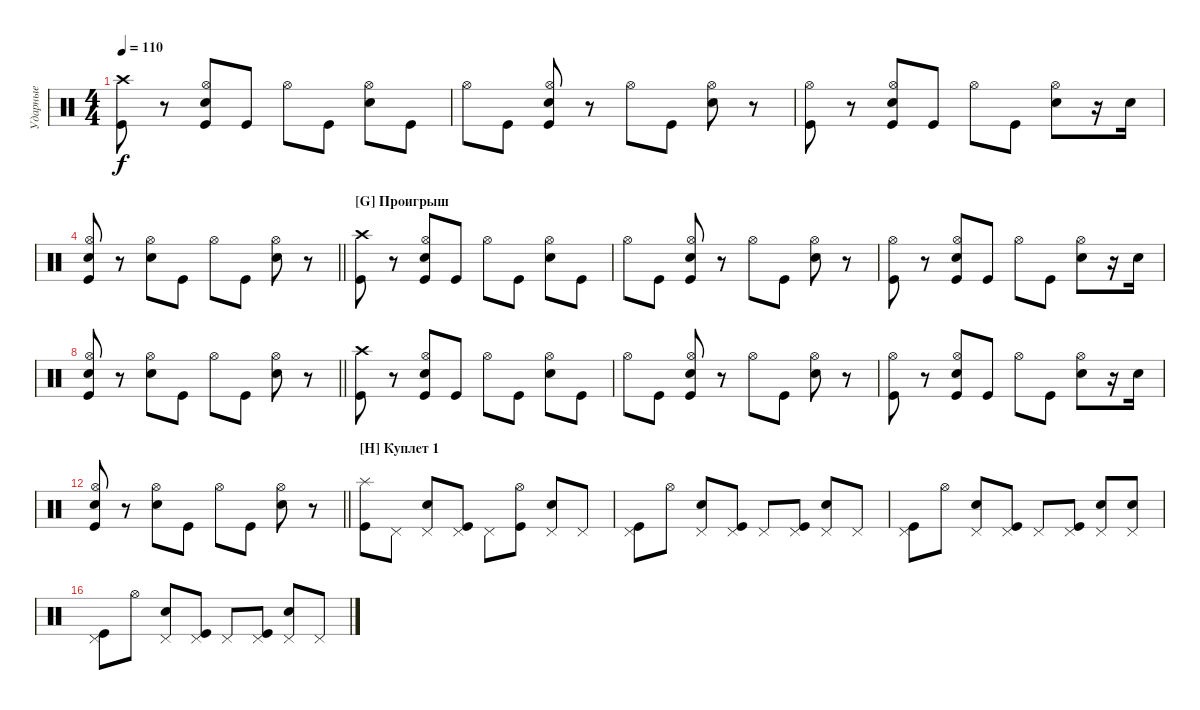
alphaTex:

\bracketExtendMode groupsimilarinstruments
\multiTrackTrackNamePolicy hidden
\firstSystemTrackNameMode fullname
\otherSystemsTrackNameMode fullname
\otherSystemsTrackNameOrientation horizontal
\defaultBarNumberDisplay FirstOfSystem
\track ("Ударные" "Drums") {multiBarRest instrument percussion}
\staff {score}
\articulation defaults
\ts (4 4)
\tempo 110
\clef neutral
\ks c
("Crash high (hit)" "Kick (hit)").8{dy f} r.8 ("Hi-Hat (open)" "Snare (hit) 2" "Kick (hit)").8 "Kick (hit)".8 "Hi-Hat (open)".8 "Kick (hit)".8 ("Hi-Hat (open)" "Snare (hit) 2").8 "Kick (hit)".8 |
"Hi-Hat (open)".8 "Kick (hit)".8 ("Hi-Hat (open)" "Snare (hit) 2" "Kick (hit)").8 r.8 "Hi-Hat (open)".8 "Kick (hit)".8 ("Hi-Hat (open)" "Snare (hit) 2").8 r.8 |
("Hi-Hat (open)" "Kick (hit)").8 r.8 ("Hi-Hat (open)" "Snare (hit) 2" "Kick (hit)").8 "Kick (hit)".8 "Hi-Hat (open)".8 "Kick (hit)".8 ("Hi-Hat (open)" "Snare (hit) 2").8 r.16 "Snare (hit) 2".16 |
\barLineRight lightlight
("Hi-Hat (open)" "Snare (hit) 2" "Kick (hit)").8 r.8 ("Hi-Hat (open)" "Snare (hit) 2").8 "Kick (hit)".8 "Hi-Hat (open)".8 "Kick (hit)".8 ("Hi-Hat (open)" "Snare (hit) 2").8 r.8 |
\section ("G" "Проигрыш")
("Crash high (hit)" "Kick (hit)").8 r.8 ("Hi-Hat (open)" "Snare (hit) 2" "Kick (hit)").8 "Kick (hit)".8 "Hi-Hat (open)".8 "Kick (hit)".8 ("Hi-Hat (open)" "Snare (hit) 2").8 "Kick (hit)".8 |
"Hi-Hat (open)".8 "Kick (hit)".8 ("Hi-Hat (open)" "Snare (hit) 2" "Kick (hit)").8 r.8 "Hi-Hat (open)".8 "Kick (hit)".8 ("Hi-Hat (open)" "Snare (hit) 2").8 r.8 |
("Hi-Hat (open)" "Kick (hit)").8 r.8 ("Hi-Hat (open)" "Snare (hit) 2" "Kick (hit)").8 "Kick (hit)".8 "Hi-Hat (open)".8 "Kick (hit)".8 ("Hi-Hat (open)" "Snare (hit) 2").8 r.16 "Snare (hit) 2".16 |
\barLineRight lightlight
("Hi-Hat (open)" "Snare (hit) 2" "Kick (hit)").8 r.8 ("Hi-Hat (open)" "Snare (hit) 2").8 "Kick (hit)".8 "Hi-Hat (open)".8 "Kick (hit)".8 ("Hi-Hat (open)" "Snare (hit) 2").8 r.8 |
("Crash high (hit)" "Kick (hit)").8 r.8 ("Hi-Hat (open)" "Snare (hit) 2" "Kick (hit)").8 "Kick (hit)".8 "Hi-Hat (open)".8 "Kick (hit)".8 ("Hi-Hat (open)" "Snare (hit) 2").8 "Kick (hit)".8 |
"Hi-Hat (open)".8 "Kick (hit)".8 ("Hi-Hat (open)" "Snare (hit) 2" "Kick (hit)").8 r.8 "Hi-Hat (open)".8 "Kick (hit)".8 ("Hi-Hat (open)" "Snare (hit) 2").8 r.8 |
("Hi-Hat (open)" "Kick (hit)").8 r.8 ("Hi-Hat (open)" "Snare (hit) 2" "Kick (hit)").8 "Kick (hit)".8 "Hi-Hat (open)".8 "Kick (hit)".8 ("Hi-Hat (open)" "Snare (hit) 2").8 r.16 "Snare (hit) 2".16 |
\barLineRight lightlight
("Hi-Hat (open)" "Snare (hit) 2" "Kick (hit)").8 r.8 ("Hi-Hat (open)" "Snare (hit) 2").8 "Kick (hit)".8 "Hi-Hat (open)".8 "Kick (hit)".8 ("Hi-Hat (open)" "Snare (hit) 2").8 r.8 |
\section ("H" "Куплет 1")
("Splash (hit)" "Kick (hit)").8 "Pedal Hi-Hat (hit)".8 ("Pedal Hi-Hat (hit)" "Snare (hit) 2").8 ("Pedal Hi-Hat (hit)" "Kick (hit)").8 "Pedal Hi-Hat (hit)".8 ("Hi-Hat (open)" "Kick (hit)").8 ("Pedal Hi-Hat (hit)" "Snare (hit) 2").8 "Pedal Hi-Hat (hit)".8 |
("Pedal Hi-Hat (hit)" "Kick (hit)").8 "Hi-Hat (open)".8 ("Pedal Hi-Hat (hit)" "Snare (hit) 2").8 ("Pedal Hi-Hat (hit)" "Kick (hit)").8 "Pedal Hi-Hat (hit)".8 ("Pedal Hi-Hat (hit)" "Kick (hit)").8 ("Pedal Hi-Hat (hit)" "Snare (hit) 2").8 "Pedal Hi-Hat (hit)".8 |
("Pedal Hi-Hat (hit)" "Kick (hit)").8 "Hi-Hat (open)".8 ("Pedal Hi-Hat (hit)" "Snare (hit) 2").8 ("Pedal Hi-Hat (hit)" "Kick (hit)").8 "Pedal Hi-Hat (hit)".8 ("Pedal Hi-Hat (hit)" "Kick (hit)").8 ("Pedal Hi-Hat (hit)" "Snare (hit) 2").8 ("Pedal Hi-Hat (hit)" "Snare (hit) 2").8 |
("Pedal Hi-Hat (hit)" "Kick (hit)").8 "Hi-Hat (open)".8 ("Pedal Hi-Hat (hit)" "Snare (hit) 2").8 ("Pedal Hi-Hat (hit)" "Kick (hit)").8 "Pedal Hi-Hat (hit)".8 ("Pedal Hi-Hat (hit)" "Kick (hit)").8 ("Pedal Hi-Hat (hit)" "Snare (hit) 2").8 "Pedal Hi-Hat (hit)".8
